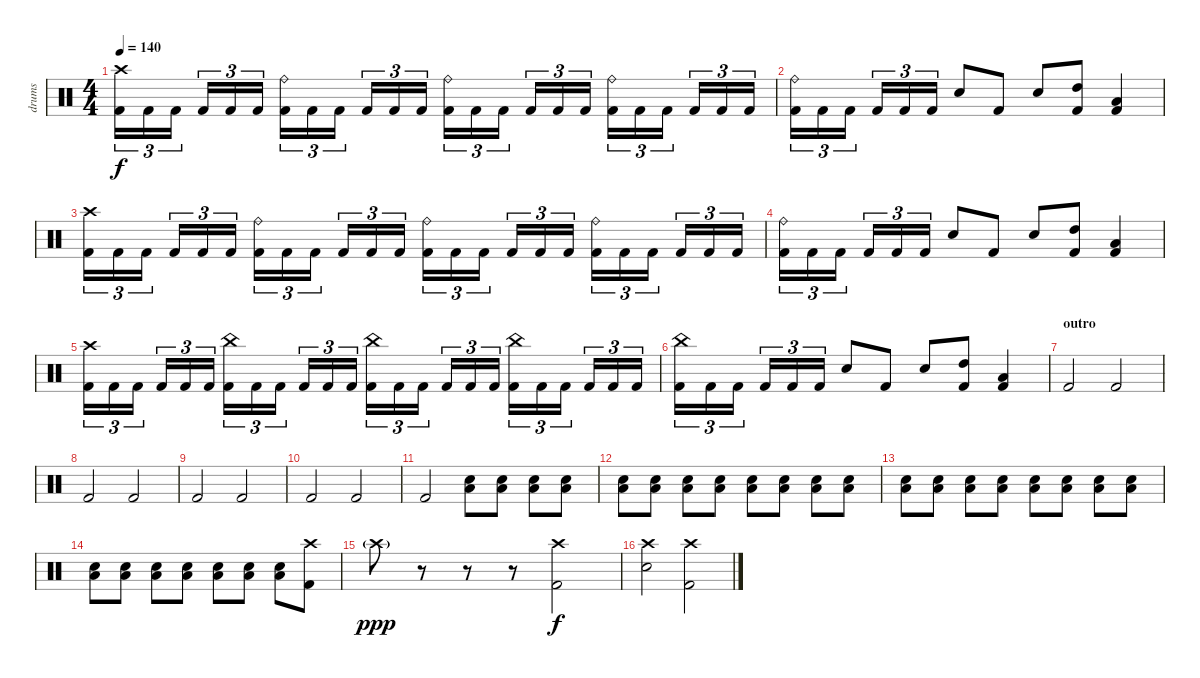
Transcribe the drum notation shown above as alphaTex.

\track ("drums" "drums") {instrument percussion}
\staff {score}
\articulation defaults
\ts (4 4)
\section ("" "")
\tempo 140
\clef neutral
\ks c
("Crash high (hit)" "Kick (hit) 2").16{tu (3 2) dy f} "Kick (hit) 2".16{tu (3 2)} "Kick (hit) 2".16{tu (3 2)} "Kick (hit) 2".16{tu (3 2)} "Kick (hit) 2".16{tu (3 2)} "Kick (hit) 2".16{tu (3 2)} ("Ride (bell)" "Kick (hit) 2").16{tu (3 2)} "Kick (hit) 2".16{tu (3 2)} "Kick (hit) 2".16{tu (3 2)} "Kick (hit) 2".16{tu (3 2)} "Kick (hit) 2".16{tu (3 2)} "Kick (hit) 2".16{tu (3 2)} ("Ride (bell)" "Kick (hit) 2").16{tu (3 2)} "Kick (hit) 2".16{tu (3 2)} "Kick (hit) 2".16{tu (3 2)} "Kick (hit) 2".16{tu (3 2)} "Kick (hit) 2".16{tu (3 2)} "Kick (hit) 2".16{tu (3 2)} ("Ride (bell)" "Kick (hit) 2").16{tu (3 2)} "Kick (hit) 2".16{tu (3 2)} "Kick (hit) 2".16{tu (3 2)} "Kick (hit) 2".16{tu (3 2)} "Kick (hit) 2".16{tu (3 2)} "Kick (hit) 2".16{tu (3 2)} |
("Ride (bell)" "Kick (hit) 2").16{tu (3 2)} "Kick (hit) 2".16{tu (3 2)} "Kick (hit) 2".16{tu (3 2)} "Kick (hit) 2".16{tu (3 2)} "Kick (hit) 2".16{tu (3 2)} "Kick (hit) 2".16{tu (3 2)} "Electric Snare (hit)".8 "Kick (hit) 2".8 "Electric Snare (hit)".8 ("High Tom (hit)" "Kick (hit) 2").8 ("Low Tom (hit)" "Kick (hit) 2").4 |
("Crash high (hit)" "Kick (hit) 2").16{tu (3 2)} "Kick (hit) 2".16{tu (3 2)} "Kick (hit) 2".16{tu (3 2)} "Kick (hit) 2".16{tu (3 2)} "Kick (hit) 2".16{tu (3 2)} "Kick (hit) 2".16{tu (3 2)} ("Ride (bell)" "Kick (hit) 2").16{tu (3 2)} "Kick (hit) 2".16{tu (3 2)} "Kick (hit) 2".16{tu (3 2)} "Kick (hit) 2".16{tu (3 2)} "Kick (hit) 2".16{tu (3 2)} "Kick (hit) 2".16{tu (3 2)} ("Ride (bell)" "Kick (hit) 2").16{tu (3 2)} "Kick (hit) 2".16{tu (3 2)} "Kick (hit) 2".16{tu (3 2)} "Kick (hit) 2".16{tu (3 2)} "Kick (hit) 2".16{tu (3 2)} "Kick (hit) 2".16{tu (3 2)} ("Ride (bell)" "Kick (hit) 2").16{tu (3 2)} "Kick (hit) 2".16{tu (3 2)} "Kick (hit) 2".16{tu (3 2)} "Kick (hit) 2".16{tu (3 2)} "Kick (hit) 2".16{tu (3 2)} "Kick (hit) 2".16{tu (3 2)} |
("Ride (bell)" "Kick (hit) 2").16{tu (3 2)} "Kick (hit) 2".16{tu (3 2)} "Kick (hit) 2".16{tu (3 2)} "Kick (hit) 2".16{tu (3 2)} "Kick (hit) 2".16{tu (3 2)} "Kick (hit) 2".16{tu (3 2)} "Electric Snare (hit)".8 "Kick (hit) 2".8 "Electric Snare (hit)".8 ("High Tom (hit)" "Kick (hit) 2").8 ("Low Tom (hit)" "Kick (hit) 2").4 |
("Crash high (hit)" "Kick (hit) 2").16{tu (3 2)} "Kick (hit) 2".16{tu (3 2)} "Kick (hit) 2".16{tu (3 2)} "Kick (hit) 2".16{tu (3 2)} "Kick (hit) 2".16{tu (3 2)} "Kick (hit) 2".16{tu (3 2)} ("China (hit)" "Kick (hit) 2").16{tu (3 2)} "Kick (hit) 2".16{tu (3 2)} "Kick (hit) 2".16{tu (3 2)} "Kick (hit) 2".16{tu (3 2)} "Kick (hit) 2".16{tu (3 2)} "Kick (hit) 2".16{tu (3 2)} ("China (hit)" "Kick (hit) 2").16{tu (3 2)} "Kick (hit) 2".16{tu (3 2)} "Kick (hit) 2".16{tu (3 2)} "Kick (hit) 2".16{tu (3 2)} "Kick (hit) 2".16{tu (3 2)} "Kick (hit) 2".16{tu (3 2)} ("China (hit)" "Kick (hit) 2").16{tu (3 2)} "Kick (hit) 2".16{tu (3 2)} "Kick (hit) 2".16{tu (3 2)} "Kick (hit) 2".16{tu (3 2)} "Kick (hit) 2".16{tu (3 2)} "Kick (hit) 2".16{tu (3 2)} |
("China (hit)" "Kick (hit) 2").16{tu (3 2)} "Kick (hit) 2".16{tu (3 2)} "Kick (hit) 2".16{tu (3 2)} "Kick (hit) 2".16{tu (3 2)} "Kick (hit) 2".16{tu (3 2)} "Kick (hit) 2".16{tu (3 2)} "Electric Snare (hit)".8 "Kick (hit) 2".8 "Electric Snare (hit)".8 ("High Tom (hit)" "Kick (hit) 2").8 ("Low Tom (hit)" "Kick (hit) 2").4 |
\section ("" "outro")
"Kick (hit) 2".2 "Kick (hit) 2".2 |
"Kick (hit) 2".2 "Kick (hit) 2".2 |
"Kick (hit) 2".2 "Kick (hit) 2".2 |
"Kick (hit) 2".2 "Kick (hit) 2".2 |
"Kick (hit) 2".2 ("Electric Snare (hit)" "Low Floor Tom (hit)").8{volume 6} ("Electric Snare (hit)" "Low Floor Tom (hit)").8{volume 16} ("Electric Snare (hit)" "Low Floor Tom (hit)").8 ("Electric Snare (hit)" "Low Floor Tom (hit)").8 |
("Electric Snare (hit)" "Low Floor Tom (hit)").8 ("Electric Snare (hit)" "Low Floor Tom (hit)").8 ("Electric Snare (hit)" "Low Floor Tom (hit)").8 ("Electric Snare (hit)" "Low Floor Tom (hit)").8 ("Electric Snare (hit)" "Low Floor Tom (hit)").8 ("Electric Snare (hit)" "Low Floor Tom (hit)").8 ("Electric Snare (hit)" "Low Floor Tom (hit)").8 ("Electric Snare (hit)" "Low Floor Tom (hit)").8 |
("Electric Snare (hit)" "Low Floor Tom (hit)").8 ("Electric Snare (hit)" "Low Floor Tom (hit)").8 ("Electric Snare (hit)" "Low Floor Tom (hit)").8 ("Electric Snare (hit)" "Low Floor Tom (hit)").8 ("Electric Snare (hit)" "Low Floor Tom (hit)").8 ("Electric Snare (hit)" "Low Floor Tom (hit)").8 ("Electric Snare (hit)" "Low Floor Tom (hit)").8 ("Electric Snare (hit)" "Low Floor Tom (hit)").8 |
("Electric Snare (hit)" "Low Floor Tom (hit)").8 ("Electric Snare (hit)" "Low Floor Tom (hit)").8 ("Electric Snare (hit)" "Low Floor Tom (hit)").8 ("Electric Snare (hit)" "Low Floor Tom (hit)").8 ("Electric Snare (hit)" "Low Floor Tom (hit)").8 ("Electric Snare (hit)" "Low Floor Tom (hit)").8 ("Electric Snare (hit)" "Low Floor Tom (hit)").8 ("Crash high (hit)"{pm} "Kick (hit) 2").8 |
\section ("" "")
"Crash high (hit)"{g}.8{dy ppp} r.8 r.8 r.8 ("Crash high (hit)" "Kick (hit) 2").2{dy f} |
("Crash high (hit)" "Electric Snare (hit)").2 ("Crash high (hit)" "Kick (hit) 2").2
